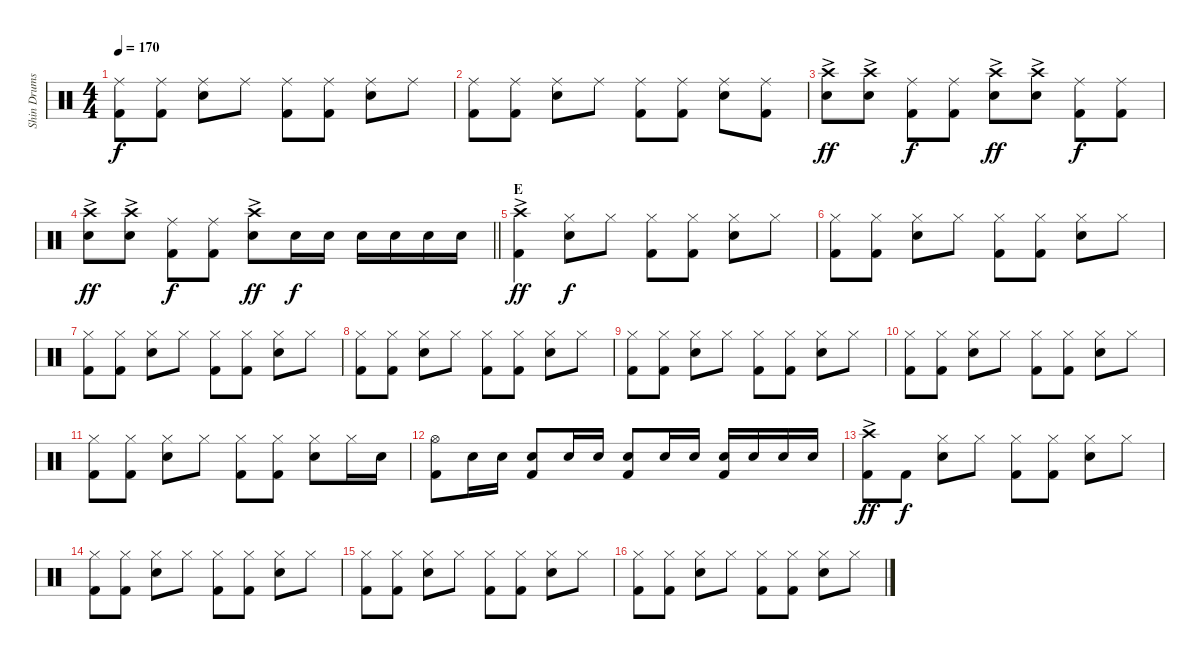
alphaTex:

\track ("Shin Drums" "Shin Drums") {instrument percussion}
\staff {score}
\articulation defaults
\ts (4 4)
\tempo 170
\clef neutral
\ks c
("Ride (middle)" "Kick (hit) 2").8{dy f} ("Ride (middle)" "Kick (hit) 2").8 ("Ride (middle)" "Snare (hit) 2").8 "Ride (middle)".8 ("Ride (middle)" "Kick (hit) 2").8 ("Ride (middle)" "Kick (hit) 2").8 ("Ride (middle)" "Snare (hit) 2").8 "Ride (middle)".8 |
("Ride (middle)" "Kick (hit) 2").8 ("Ride (middle)" "Kick (hit) 2").8 ("Ride (middle)" "Snare (hit) 2").8 "Ride (middle)".8 ("Ride (middle)" "Kick (hit) 2").8 ("Ride (middle)" "Kick (hit) 2").8 ("Ride (middle)" "Snare (hit) 2").8 ("Ride (middle)" "Kick (hit) 2").8 |
("Crash high (hit)"{ac} "Snare (hit) 2").8{dy ff} ("Crash high (hit)"{ac} "Snare (hit) 2").8 ("Ride (middle)" "Kick (hit) 2").8{dy f} ("Ride (middle)" "Kick (hit) 2").8 ("Crash high (hit)"{ac} "Snare (hit) 2").8{dy ff} ("Crash high (hit)"{ac} "Snare (hit) 2").8 ("Ride (middle)" "Kick (hit) 2").8{dy f} ("Ride (middle)" "Kick (hit) 2").8 |
\barLineRight lightlight
("Crash high (hit)"{ac} "Snare (hit) 2").8{dy ff} ("Crash high (hit)"{ac} "Snare (hit) 2").8 ("Ride (middle)" "Kick (hit) 2").8{dy f} ("Ride (middle)" "Kick (hit) 2").8 ("Crash high (hit)"{ac} "Snare (hit) 2").8{dy ff} "Snare (hit) 2".16{dy f} "Snare (hit) 2".16 "Snare (hit) 2".16 "Snare (hit) 2".16 "Snare (hit) 2".16 "Snare (hit) 2".16 |
\section ("" "E")
("Crash high (hit)"{ac} "Kick (hit) 2").4{dy ff} ("Hi-Hat (closed)" "Snare (hit) 2").8{dy f} "Hi-Hat (closed)".8 ("Hi-Hat (closed)" "Kick (hit) 2").8 ("Hi-Hat (closed)" "Kick (hit) 2").8 ("Hi-Hat (closed)" "Snare (hit) 2").8 "Hi-Hat (closed)".8 |
("Hi-Hat (closed)" "Kick (hit) 2").8 ("Hi-Hat (closed)" "Kick (hit) 2").8 ("Hi-Hat (closed)" "Snare (hit) 2").8 "Hi-Hat (closed)".8 ("Hi-Hat (closed)" "Kick (hit) 2").8 ("Hi-Hat (closed)" "Kick (hit) 2").8 ("Hi-Hat (closed)" "Snare (hit) 2").8 "Hi-Hat (closed)".8 |
("Hi-Hat (closed)" "Kick (hit) 2").8 ("Hi-Hat (closed)" "Kick (hit) 2").8 ("Hi-Hat (closed)" "Snare (hit) 2").8 "Hi-Hat (closed)".8 ("Hi-Hat (closed)" "Kick (hit) 2").8 ("Hi-Hat (closed)" "Kick (hit) 2").8 ("Hi-Hat (closed)" "Snare (hit) 2").8 "Hi-Hat (closed)".8 |
("Hi-Hat (closed)" "Kick (hit) 2").8 ("Hi-Hat (closed)" "Kick (hit) 2").8 ("Hi-Hat (closed)" "Snare (hit) 2").8 "Hi-Hat (closed)".8 ("Hi-Hat (closed)" "Kick (hit) 2").8 ("Hi-Hat (closed)" "Kick (hit) 2").8 ("Hi-Hat (closed)" "Snare (hit) 2").8 "Hi-Hat (closed)".8 |
("Hi-Hat (closed)" "Kick (hit) 2").8 ("Hi-Hat (closed)" "Kick (hit) 2").8 ("Hi-Hat (closed)" "Snare (hit) 2").8 "Hi-Hat (closed)".8 ("Hi-Hat (closed)" "Kick (hit) 2").8 ("Hi-Hat (closed)" "Kick (hit) 2").8 ("Hi-Hat (closed)" "Snare (hit) 2").8 "Hi-Hat (closed)".8 |
("Hi-Hat (closed)" "Kick (hit) 2").8 ("Hi-Hat (closed)" "Kick (hit) 2").8 ("Hi-Hat (closed)" "Snare (hit) 2").8 "Hi-Hat (closed)".8 ("Hi-Hat (closed)" "Kick (hit) 2").8 ("Hi-Hat (closed)" "Kick (hit) 2").8 ("Hi-Hat (closed)" "Snare (hit) 2").8 "Hi-Hat (closed)".8 |
("Hi-Hat (closed)" "Kick (hit) 2").8 ("Hi-Hat (closed)" "Kick (hit) 2").8 ("Hi-Hat (closed)" "Snare (hit) 2").8 "Hi-Hat (closed)".8 ("Hi-Hat (closed)" "Kick (hit) 2").8 ("Hi-Hat (closed)" "Kick (hit) 2").8 ("Hi-Hat (closed)" "Snare (hit) 2").8 "Hi-Hat (closed)".16 "Snare (hit) 2".16 |
("Hi-Hat (open)" "Kick (hit) 2").8 "Snare (hit) 2".16 "Snare (hit) 2".16 ("Snare (hit) 2" "Kick (hit) 2").8 "Snare (hit) 2".16 "Snare (hit) 2".16 ("Snare (hit) 2" "Kick (hit) 2").8 "Snare (hit) 2".16 "Snare (hit) 2".16 ("Snare (hit) 2" "Kick (hit) 2").16 "Snare (hit) 2".16 "Snare (hit) 2".16 "Snare (hit) 2".16 |
("Crash high (hit)"{ac} "Kick (hit) 2").8{dy ff} "Kick (hit) 2".8{dy f} ("Hi-Hat (closed)" "Snare (hit) 2").8 "Hi-Hat (closed)".8 ("Hi-Hat (closed)" "Kick (hit) 2").8 ("Hi-Hat (closed)" "Kick (hit) 2").8 ("Hi-Hat (closed)" "Snare (hit) 2").8 "Hi-Hat (closed)".8 |
("Hi-Hat (closed)" "Kick (hit) 2").8 ("Hi-Hat (closed)" "Kick (hit) 2").8 ("Hi-Hat (closed)" "Snare (hit) 2").8 "Hi-Hat (closed)".8 ("Hi-Hat (closed)" "Kick (hit) 2").8 ("Hi-Hat (closed)" "Kick (hit) 2").8 ("Hi-Hat (closed)" "Snare (hit) 2").8 "Hi-Hat (closed)".8 |
("Hi-Hat (closed)" "Kick (hit) 2").8 ("Hi-Hat (closed)" "Kick (hit) 2").8 ("Hi-Hat (closed)" "Snare (hit) 2").8 "Hi-Hat (closed)".8 ("Hi-Hat (closed)" "Kick (hit) 2").8 ("Hi-Hat (closed)" "Kick (hit) 2").8 ("Hi-Hat (closed)" "Snare (hit) 2").8 "Hi-Hat (closed)".8 |
("Hi-Hat (closed)" "Kick (hit) 2").8 ("Hi-Hat (closed)" "Kick (hit) 2").8 ("Hi-Hat (closed)" "Snare (hit) 2").8 "Hi-Hat (closed)".8 ("Hi-Hat (closed)" "Kick (hit) 2").8 ("Hi-Hat (closed)" "Kick (hit) 2").8 ("Hi-Hat (closed)" "Snare (hit) 2").8 "Hi-Hat (closed)".8
